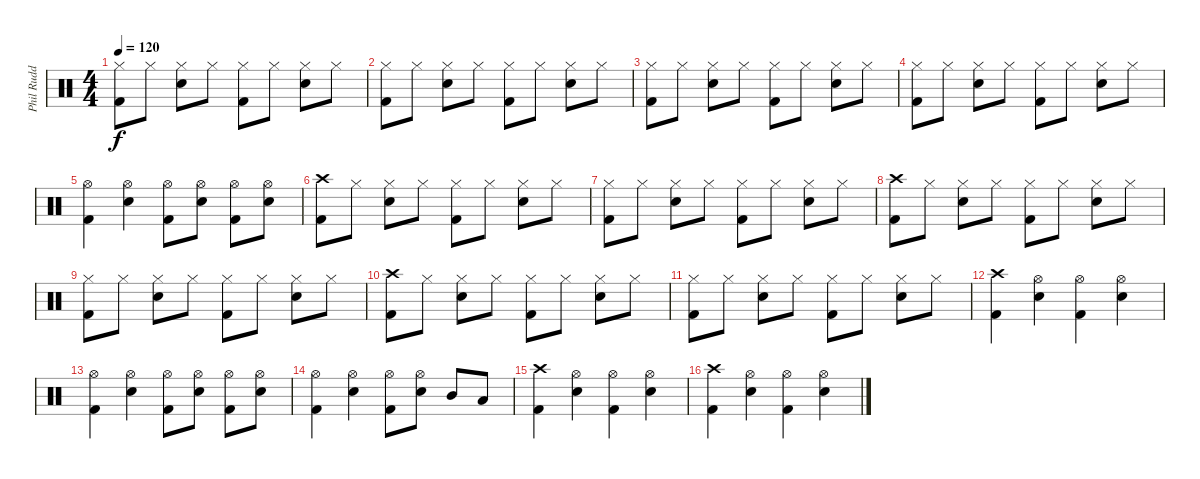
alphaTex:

\track ("Phil Rudd (Drum)" "Phil Rudd ") {instrument percussion}
\staff {score}
\articulation defaults
\ts (4 4)
\tempo 120
\clef neutral
\ks c
("Hi-Hat (closed)" "Kick (hit) 2").8{dy f} "Hi-Hat (closed)".8 ("Hi-Hat (closed)" "Snare (hit) 2").8 "Hi-Hat (closed)".8 ("Hi-Hat (closed)" "Kick (hit) 2").8 "Hi-Hat (closed)".8 ("Hi-Hat (closed)" "Snare (hit) 2").8 "Hi-Hat (closed)".8 |
("Hi-Hat (closed)" "Kick (hit) 2").8 "Hi-Hat (closed)".8 ("Hi-Hat (closed)" "Snare (hit) 2").8 "Hi-Hat (closed)".8 ("Hi-Hat (closed)" "Kick (hit) 2").8 "Hi-Hat (closed)".8 ("Hi-Hat (closed)" "Snare (hit) 2").8 "Hi-Hat (closed)".8 |
("Hi-Hat (closed)" "Kick (hit) 2").8 "Hi-Hat (closed)".8 ("Hi-Hat (closed)" "Snare (hit) 2").8 "Hi-Hat (closed)".8 ("Hi-Hat (closed)" "Kick (hit) 2").8 "Hi-Hat (closed)".8 ("Hi-Hat (closed)" "Snare (hit) 2").8 "Hi-Hat (closed)".8 |
("Hi-Hat (closed)" "Kick (hit) 2").8 "Hi-Hat (closed)".8 ("Hi-Hat (closed)" "Snare (hit) 2").8 "Hi-Hat (closed)".8 ("Hi-Hat (closed)" "Kick (hit) 2").8 "Hi-Hat (closed)".8 ("Hi-Hat (closed)" "Snare (hit) 2").8 "Hi-Hat (closed)".8 |
("Hi-Hat (open)" "Kick (hit) 2").4 ("Hi-Hat (open)" "Snare (hit) 2").4 ("Hi-Hat (open)" "Kick (hit) 2").8 ("Hi-Hat (open)" "Snare (hit) 2").8 ("Hi-Hat (open)" "Kick (hit) 2").8 ("Hi-Hat (open)" "Snare (hit) 2").8 |
("Crash high (hit)" "Kick (hit) 2").8 "Hi-Hat (closed)".8 ("Hi-Hat (closed)" "Snare (hit) 2").8 "Hi-Hat (closed)".8 ("Hi-Hat (closed)" "Kick (hit) 2").8 "Hi-Hat (closed)".8 ("Hi-Hat (closed)" "Snare (hit) 2").8 "Hi-Hat (closed)".8 |
("Hi-Hat (closed)" "Kick (hit) 2").8 "Hi-Hat (closed)".8 ("Hi-Hat (closed)" "Snare (hit) 2").8 "Hi-Hat (closed)".8 ("Hi-Hat (closed)" "Kick (hit) 2").8 "Hi-Hat (closed)".8 ("Hi-Hat (closed)" "Snare (hit) 2").8 "Hi-Hat (closed)".8 |
("Crash high (hit)" "Kick (hit) 2").8 "Hi-Hat (closed)".8 ("Hi-Hat (closed)" "Snare (hit) 2").8 "Hi-Hat (closed)".8 ("Hi-Hat (closed)" "Kick (hit) 2").8 "Hi-Hat (closed)".8 ("Hi-Hat (closed)" "Snare (hit) 2").8 "Hi-Hat (closed)".8 |
("Hi-Hat (closed)" "Kick (hit) 2").8 "Hi-Hat (closed)".8 ("Hi-Hat (closed)" "Snare (hit) 2").8 "Hi-Hat (closed)".8 ("Hi-Hat (closed)" "Kick (hit) 2").8 "Hi-Hat (closed)".8 ("Hi-Hat (closed)" "Snare (hit) 2").8 "Hi-Hat (closed)".8 |
("Crash high (hit)" "Kick (hit) 2").8 "Hi-Hat (closed)".8 ("Hi-Hat (closed)" "Snare (hit) 2").8 "Hi-Hat (closed)".8 ("Hi-Hat (closed)" "Kick (hit) 2").8 "Hi-Hat (closed)".8 ("Hi-Hat (closed)" "Snare (hit) 2").8 "Hi-Hat (closed)".8 |
("Hi-Hat (closed)" "Kick (hit) 2").8 "Hi-Hat (closed)".8 ("Hi-Hat (closed)" "Snare (hit) 2").8 "Hi-Hat (closed)".8 ("Hi-Hat (closed)" "Kick (hit) 2").8 "Hi-Hat (closed)".8 ("Hi-Hat (closed)" "Snare (hit) 2").8 "Hi-Hat (closed)".8 |
("Crash high (hit)" "Kick (hit) 2").4 ("Hi-Hat (open)" "Snare (hit) 2").4 ("Hi-Hat (open)" "Kick (hit) 2").4 ("Hi-Hat (open)" "Snare (hit) 2").4 |
("Hi-Hat (open)" "Kick (hit) 2").4 ("Hi-Hat (open)" "Snare (hit) 2").4 ("Hi-Hat (open)" "Kick (hit) 2").8 ("Hi-Hat (open)" "Snare (hit) 2").8 ("Hi-Hat (open)" "Kick (hit) 2").8 ("Hi-Hat (open)" "Snare (hit) 2").8 |
("Hi-Hat (open)" "Kick (hit) 2").4 ("Hi-Hat (open)" "Snare (hit) 2").4 ("Hi-Hat (open)" "Kick (hit) 2").8 ("Hi-Hat (open)" "Snare (hit) 2").8 "Mid Tom (hit)".8 "Low Tom (hit)".8 |
("Crash high (hit)" "Kick (hit) 2").4 ("Hi-Hat (open)" "Snare (hit) 2").4 ("Hi-Hat (open)" "Kick (hit) 2").4 ("Hi-Hat (open)" "Snare (hit) 2").4 |
("Crash high (hit)" "Kick (hit) 2").4 ("Hi-Hat (open)" "Snare (hit) 2").4 ("Hi-Hat (open)" "Kick (hit) 2").4 ("Hi-Hat (open)" "Snare (hit) 2").4
